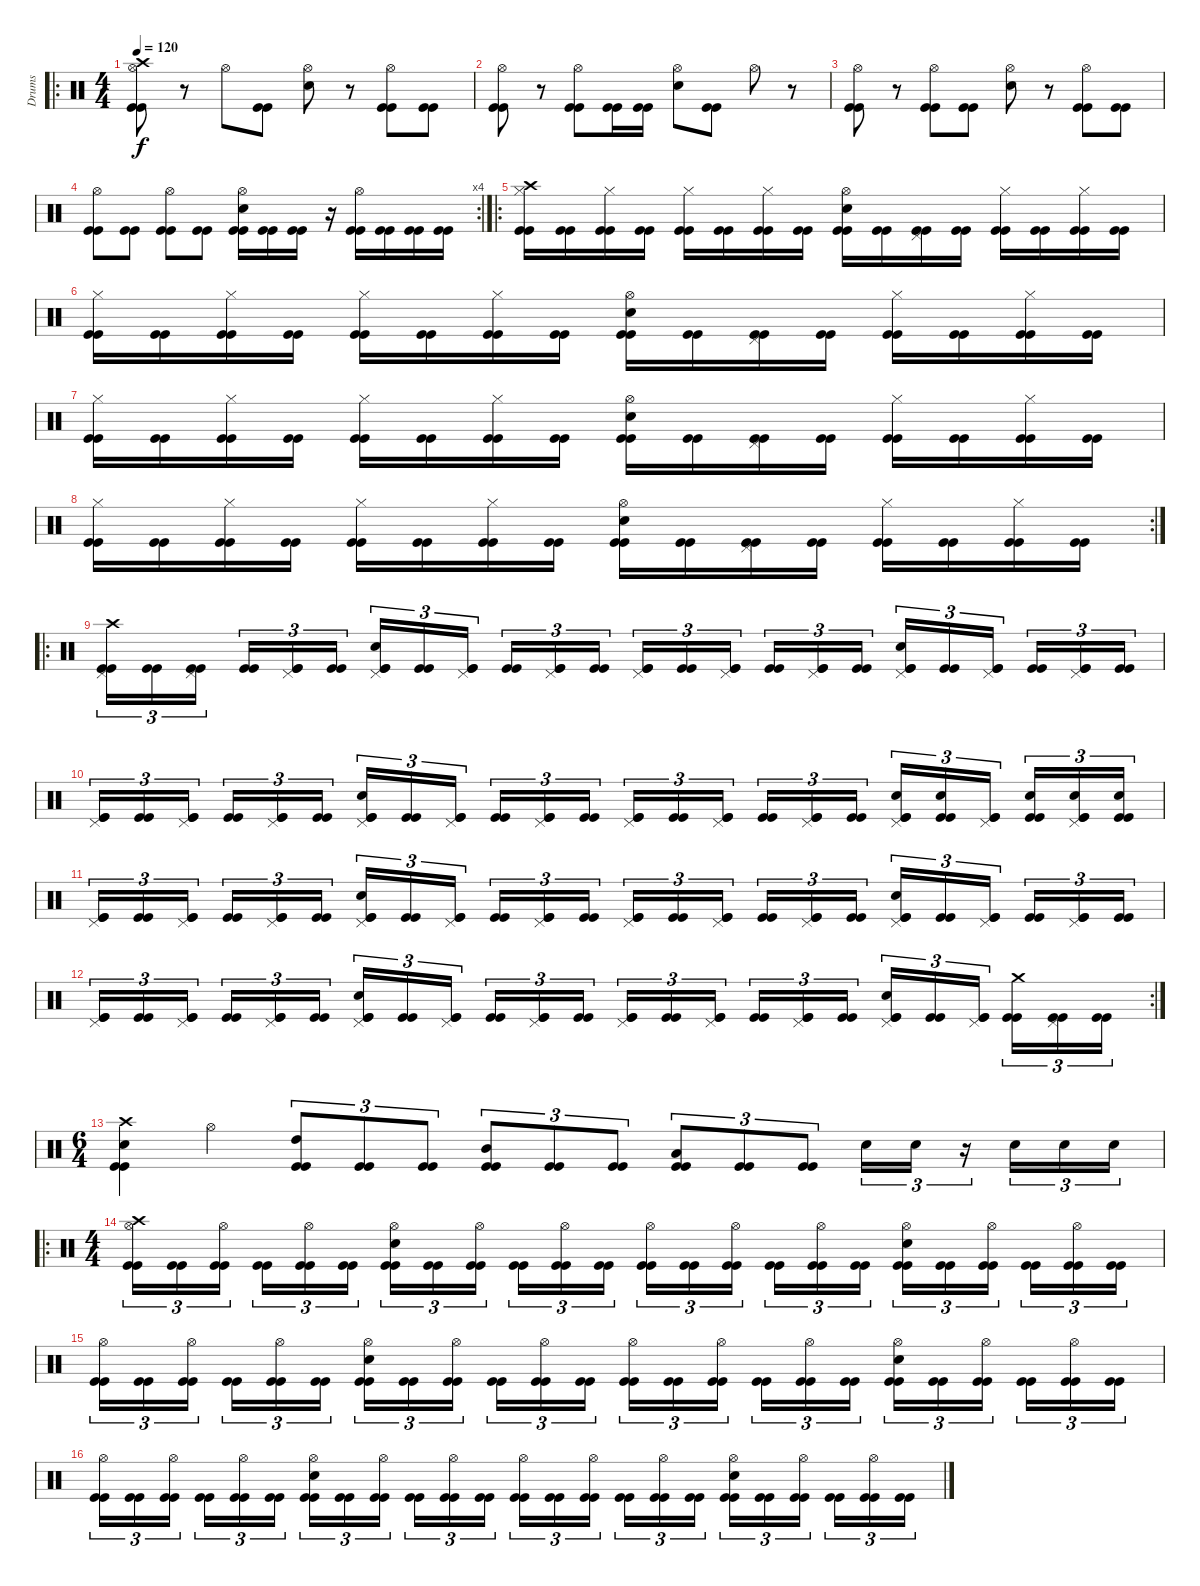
\track ("Drums" "Drums") {instrument percussion}
\staff {score}
\articulation defaults
\ro
\ts (4 4)
\tempo 120
\clef neutral
\ks c
("Crash high (hit)" "Hi-Hat (open)" "Kick (hit)" "Kick (hit)").8{dy f} r.8 "Hi-Hat (open)".8 ("Kick (hit)" "Kick (hit)").8 ("Snare (hit) 2" "Hi-Hat (open)").8 r.8 ("Hi-Hat (open)" "Kick (hit)" "Kick (hit)").8 ("Kick (hit)" "Kick (hit)").8 |
("Hi-Hat (open)" "Kick (hit)" "Kick (hit)").8 r.8 ("Hi-Hat (open)" "Kick (hit)" "Kick (hit)").8 ("Kick (hit)" "Kick (hit)").16 ("Kick (hit)" "Kick (hit)").16 ("Snare (hit) 2" "Hi-Hat (open)").8 ("Kick (hit)" "Kick (hit)").8 "Hi-Hat (open)".8 r.8 |
("Hi-Hat (open)" "Kick (hit)" "Kick (hit)").8 r.8 ("Hi-Hat (open)" "Kick (hit)" "Kick (hit)").8 ("Kick (hit)" "Kick (hit)").8 ("Snare (hit) 2" "Hi-Hat (open)").8 r.8 ("Hi-Hat (open)" "Kick (hit)" "Kick (hit)").8 ("Kick (hit)" "Kick (hit)").8 |
\rc 4
("Hi-Hat (open)" "Kick (hit)" "Kick (hit)").8 ("Kick (hit)" "Kick (hit)").8 ("Hi-Hat (open)" "Kick (hit)" "Kick (hit)").8 ("Kick (hit)" "Kick (hit)").8 ("Snare (hit) 2" "Hi-Hat (open)" "Kick (hit)" "Kick (hit)").16 ("Kick (hit)" "Kick (hit)").16 ("Kick (hit)" "Kick (hit)").16 r.16 ("Hi-Hat (open)" "Kick (hit)" "Kick (hit)").16 ("Kick (hit)" "Kick (hit)").16 ("Kick (hit)" "Kick (hit)").16 ("Kick (hit)" "Kick (hit)").16 |
\ro
("Crash high (hit)" "Hi-Hat (closed)" "Kick (hit)" "Kick (hit)").16 ("Kick (hit)" "Kick (hit)").16 ("Hi-Hat (closed)" "Kick (hit)" "Kick (hit)").16 ("Kick (hit)" "Kick (hit)").16 ("Hi-Hat (closed)" "Kick (hit)" "Kick (hit)").16 ("Kick (hit)" "Kick (hit)").16 ("Hi-Hat (closed)" "Kick (hit)" "Kick (hit)").16 ("Kick (hit)" "Kick (hit)").16 ("Snare (hit) 2" "Hi-Hat (open)" "Kick (hit)" "Kick (hit)").16 ("Kick (hit)" "Kick (hit)").16 ("Pedal Hi-Hat (hit)" "Kick (hit)" "Kick (hit)").16 ("Kick (hit)" "Kick (hit)").16 ("Hi-Hat (closed)" "Kick (hit)" "Kick (hit)").16 ("Kick (hit)" "Kick (hit)").16 ("Hi-Hat (closed)" "Kick (hit)" "Kick (hit)").16 ("Kick (hit)" "Kick (hit)").16 |
("Hi-Hat (closed)" "Kick (hit)" "Kick (hit)").16 ("Kick (hit)" "Kick (hit)").16 ("Hi-Hat (closed)" "Kick (hit)" "Kick (hit)").16 ("Kick (hit)" "Kick (hit)").16 ("Hi-Hat (closed)" "Kick (hit)" "Kick (hit)").16 ("Kick (hit)" "Kick (hit)").16 ("Hi-Hat (closed)" "Kick (hit)" "Kick (hit)").16 ("Kick (hit)" "Kick (hit)").16 ("Snare (hit) 2" "Hi-Hat (open)" "Kick (hit)" "Kick (hit)").16 ("Kick (hit)" "Kick (hit)").16 ("Pedal Hi-Hat (hit)" "Kick (hit)" "Kick (hit)").16 ("Kick (hit)" "Kick (hit)").16 ("Hi-Hat (closed)" "Kick (hit)" "Kick (hit)").16 ("Kick (hit)" "Kick (hit)").16 ("Hi-Hat (closed)" "Kick (hit)" "Kick (hit)").16 ("Kick (hit)" "Kick (hit)").16 |
("Hi-Hat (closed)" "Kick (hit)" "Kick (hit)").16 ("Kick (hit)" "Kick (hit)").16 ("Hi-Hat (closed)" "Kick (hit)" "Kick (hit)").16 ("Kick (hit)" "Kick (hit)").16 ("Hi-Hat (closed)" "Kick (hit)" "Kick (hit)").16 ("Kick (hit)" "Kick (hit)").16 ("Hi-Hat (closed)" "Kick (hit)" "Kick (hit)").16 ("Kick (hit)" "Kick (hit)").16 ("Snare (hit) 2" "Hi-Hat (open)" "Kick (hit)" "Kick (hit)").16 ("Kick (hit)" "Kick (hit)").16 ("Pedal Hi-Hat (hit)" "Kick (hit)" "Kick (hit)").16 ("Kick (hit)" "Kick (hit)").16 ("Hi-Hat (closed)" "Kick (hit)" "Kick (hit)").16 ("Kick (hit)" "Kick (hit)").16 ("Hi-Hat (closed)" "Kick (hit)" "Kick (hit)").16 ("Kick (hit)" "Kick (hit)").16 |
\rc 2
("Hi-Hat (closed)" "Kick (hit)" "Kick (hit)").16 ("Kick (hit)" "Kick (hit)").16 ("Hi-Hat (closed)" "Kick (hit)" "Kick (hit)").16 ("Kick (hit)" "Kick (hit)").16 ("Hi-Hat (closed)" "Kick (hit)" "Kick (hit)").16 ("Kick (hit)" "Kick (hit)").16 ("Hi-Hat (closed)" "Kick (hit)" "Kick (hit)").16 ("Kick (hit)" "Kick (hit)").16 ("Snare (hit) 2" "Hi-Hat (open)" "Kick (hit)" "Kick (hit)").16 ("Kick (hit)" "Kick (hit)").16 ("Pedal Hi-Hat (hit)" "Kick (hit)" "Kick (hit)").16 ("Kick (hit)" "Kick (hit)").16 ("Hi-Hat (closed)" "Kick (hit)" "Kick (hit)").16 ("Kick (hit)" "Kick (hit)").16 ("Hi-Hat (closed)" "Kick (hit)" "Kick (hit)").16 ("Kick (hit)" "Kick (hit)").16 |
\ro
("Crash high (hit)" "Pedal Hi-Hat (hit)" "Kick (hit)" "Kick (hit)").16{tu (3 2)} ("Kick (hit)" "Kick (hit)").16{tu (3 2)} ("Pedal Hi-Hat (hit)" "Kick (hit)" "Kick (hit)").16{tu (3 2)} ("Kick (hit)" "Kick (hit)").16{tu (3 2)} ("Pedal Hi-Hat (hit)" "Kick (hit)" "Kick (hit)").16{tu (3 2)} ("Kick (hit)" "Kick (hit)").16{tu (3 2)} ("Snare (hit) 2" "Pedal Hi-Hat (hit)" "Kick (hit)" "Kick (hit)").16{tu (3 2)} ("Kick (hit)" "Kick (hit)").16{tu (3 2)} ("Pedal Hi-Hat (hit)" "Kick (hit)" "Kick (hit)").16{tu (3 2)} ("Kick (hit)" "Kick (hit)").16{tu (3 2)} ("Pedal Hi-Hat (hit)" "Kick (hit)" "Kick (hit)").16{tu (3 2)} ("Kick (hit)" "Kick (hit)").16{tu (3 2)} ("Pedal Hi-Hat (hit)" "Kick (hit)" "Kick (hit)").16{tu (3 2)} ("Kick (hit)" "Kick (hit)").16{tu (3 2)} ("Pedal Hi-Hat (hit)" "Kick (hit)" "Kick (hit)").16{tu (3 2)} ("Kick (hit)" "Kick (hit)").16{tu (3 2)} ("Pedal Hi-Hat (hit)" "Kick (hit)" "Kick (hit)").16{tu (3 2)} ("Kick (hit)" "Kick (hit)").16{tu (3 2)} ("Snare (hit) 2" "Pedal Hi-Hat (hit)" "Kick (hit)" "Kick (hit)").16{tu (3 2)} ("Kick (hit)" "Kick (hit)").16{tu (3 2)} ("Pedal Hi-Hat (hit)" "Kick (hit)" "Kick (hit)").16{tu (3 2)} ("Kick (hit)" "Kick (hit)").16{tu (3 2)} ("Pedal Hi-Hat (hit)" "Kick (hit)" "Kick (hit)").16{tu (3 2)} ("Kick (hit)" "Kick (hit)").16{tu (3 2)} |
("Pedal Hi-Hat (hit)" "Kick (hit)" "Kick (hit)").16{tu (3 2)} ("Kick (hit)" "Kick (hit)").16{tu (3 2)} ("Pedal Hi-Hat (hit)" "Kick (hit)" "Kick (hit)").16{tu (3 2)} ("Kick (hit)" "Kick (hit)").16{tu (3 2)} ("Pedal Hi-Hat (hit)" "Kick (hit)" "Kick (hit)").16{tu (3 2)} ("Kick (hit)" "Kick (hit)").16{tu (3 2)} ("Snare (hit) 2" "Pedal Hi-Hat (hit)" "Kick (hit)" "Kick (hit)").16{tu (3 2)} ("Kick (hit)" "Kick (hit)").16{tu (3 2)} ("Pedal Hi-Hat (hit)" "Kick (hit)" "Kick (hit)").16{tu (3 2)} ("Kick (hit)" "Kick (hit)").16{tu (3 2)} ("Pedal Hi-Hat (hit)" "Kick (hit)" "Kick (hit)").16{tu (3 2)} ("Kick (hit)" "Kick (hit)").16{tu (3 2)} ("Pedal Hi-Hat (hit)" "Kick (hit)" "Kick (hit)").16{tu (3 2)} ("Kick (hit)" "Kick (hit)").16{tu (3 2)} ("Pedal Hi-Hat (hit)" "Kick (hit)" "Kick (hit)").16{tu (3 2)} ("Kick (hit)" "Kick (hit)").16{tu (3 2)} ("Pedal Hi-Hat (hit)" "Kick (hit)" "Kick (hit)").16{tu (3 2)} ("Kick (hit)" "Kick (hit)").16{tu (3 2)} ("Snare (hit) 2" "Pedal Hi-Hat (hit)" "Kick (hit)" "Kick (hit)").16{tu (3 2)} ("Snare (hit) 2" "Kick (hit)" "Kick (hit)").16{tu (3 2)} ("Pedal Hi-Hat (hit)" "Kick (hit)" "Kick (hit)").16{tu (3 2)} ("Snare (hit) 2" "Kick (hit)" "Kick (hit)").16{tu (3 2)} ("Snare (hit) 2" "Pedal Hi-Hat (hit)" "Kick (hit)" "Kick (hit)").16{tu (3 2)} ("Snare (hit) 2" "Kick (hit)" "Kick (hit)").16{tu (3 2)} |
("Pedal Hi-Hat (hit)" "Kick (hit)" "Kick (hit)").16{tu (3 2)} ("Kick (hit)" "Kick (hit)").16{tu (3 2)} ("Pedal Hi-Hat (hit)" "Kick (hit)" "Kick (hit)").16{tu (3 2)} ("Kick (hit)" "Kick (hit)").16{tu (3 2)} ("Pedal Hi-Hat (hit)" "Kick (hit)" "Kick (hit)").16{tu (3 2)} ("Kick (hit)" "Kick (hit)").16{tu (3 2)} ("Snare (hit) 2" "Pedal Hi-Hat (hit)" "Kick (hit)" "Kick (hit)").16{tu (3 2)} ("Kick (hit)" "Kick (hit)").16{tu (3 2)} ("Pedal Hi-Hat (hit)" "Kick (hit)" "Kick (hit)").16{tu (3 2)} ("Kick (hit)" "Kick (hit)").16{tu (3 2)} ("Pedal Hi-Hat (hit)" "Kick (hit)" "Kick (hit)").16{tu (3 2)} ("Kick (hit)" "Kick (hit)").16{tu (3 2)} ("Pedal Hi-Hat (hit)" "Kick (hit)" "Kick (hit)").16{tu (3 2)} ("Kick (hit)" "Kick (hit)").16{tu (3 2)} ("Pedal Hi-Hat (hit)" "Kick (hit)" "Kick (hit)").16{tu (3 2)} ("Kick (hit)" "Kick (hit)").16{tu (3 2)} ("Pedal Hi-Hat (hit)" "Kick (hit)" "Kick (hit)").16{tu (3 2)} ("Kick (hit)" "Kick (hit)").16{tu (3 2)} ("Snare (hit) 2" "Pedal Hi-Hat (hit)" "Kick (hit)" "Kick (hit)").16{tu (3 2)} ("Kick (hit)" "Kick (hit)").16{tu (3 2)} ("Pedal Hi-Hat (hit)" "Kick (hit)" "Kick (hit)").16{tu (3 2)} ("Kick (hit)" "Kick (hit)").16{tu (3 2)} ("Pedal Hi-Hat (hit)" "Kick (hit)" "Kick (hit)").16{tu (3 2)} ("Kick (hit)" "Kick (hit)").16{tu (3 2)} |
\rc 2
("Pedal Hi-Hat (hit)" "Kick (hit)" "Kick (hit)").16{tu (3 2)} ("Kick (hit)" "Kick (hit)").16{tu (3 2)} ("Pedal Hi-Hat (hit)" "Kick (hit)" "Kick (hit)").16{tu (3 2)} ("Kick (hit)" "Kick (hit)").16{tu (3 2)} ("Pedal Hi-Hat (hit)" "Kick (hit)" "Kick (hit)").16{tu (3 2)} ("Kick (hit)" "Kick (hit)").16{tu (3 2)} ("Snare (hit) 2" "Pedal Hi-Hat (hit)" "Kick (hit)" "Kick (hit)").16{tu (3 2)} ("Kick (hit)" "Kick (hit)").16{tu (3 2)} ("Pedal Hi-Hat (hit)" "Kick (hit)" "Kick (hit)").16{tu (3 2)} ("Kick (hit)" "Kick (hit)").16{tu (3 2)} ("Pedal Hi-Hat (hit)" "Kick (hit)" "Kick (hit)").16{tu (3 2)} ("Kick (hit)" "Kick (hit)").16{tu (3 2)} ("Pedal Hi-Hat (hit)" "Kick (hit)" "Kick (hit)").16{tu (3 2)} ("Kick (hit)" "Kick (hit)").16{tu (3 2)} ("Pedal Hi-Hat (hit)" "Kick (hit)" "Kick (hit)").16{tu (3 2)} ("Kick (hit)" "Kick (hit)").16{tu (3 2)} ("Pedal Hi-Hat (hit)" "Kick (hit)" "Kick (hit)").16{tu (3 2)} ("Kick (hit)" "Kick (hit)").16{tu (3 2)} ("Snare (hit) 2" "Pedal Hi-Hat (hit)" "Kick (hit)" "Kick (hit)").16{tu (3 2)} ("Kick (hit)" "Kick (hit)").16{tu (3 2)} ("Pedal Hi-Hat (hit)" "Kick (hit)" "Kick (hit)").16{tu (3 2)} ("Crash medium (hit)" "Kick (hit)" "Kick (hit)").16{tu (3 2)} ("Pedal Hi-Hat (hit)" "Kick (hit)" "Kick (hit)").16{tu (3 2)} ("Kick (hit)" "Kick (hit)").16{tu (3 2)} |
\ts (6 4)
("Crash high (hit)" "Snare (hit) 2" "Kick (hit)" "Kick (hit)").4 "Hi-Hat (open)".4 ("High Tom (hit)" "Kick (hit)" "Kick (hit)").8{tu (3 2) bd 120} ("Kick (hit)" "Kick (hit)").8{tu (3 2) bd 120} ("Kick (hit)" "Kick (hit)").8{tu (3 2) bd 120} ("Mid Tom (hit)" "Kick (hit)" "Kick (hit)").8{tu (3 2) bd 120} ("Kick (hit)" "Kick (hit)").8{tu (3 2) bd 120} ("Kick (hit)" "Kick (hit)").8{tu (3 2) bd 120} ("Low Tom (hit)" "Kick (hit)" "Kick (hit)").8{tu (3 2) bd 120} ("Kick (hit)" "Kick (hit)").8{tu (3 2) bd 120} ("Kick (hit)" "Kick (hit)").8{tu (3 2) bd 120} "Snare (hit) 2".16{tu (3 2)} "Snare (hit) 2".16{tu (3 2)} r.16{tu (3 2)} "Snare (hit) 2".16{tu (3 2)} "Snare (hit) 2".16{tu (3 2)} "Snare (hit) 2".16{tu (3 2)} |
\ro
\ts (4 4)
("Crash high (hit)" "Hi-Hat (open)" "Kick (hit)" "Kick (hit)").16{tu (3 2)} ("Kick (hit)" "Kick (hit)").16{tu (3 2)} ("Hi-Hat (open)" "Kick (hit)" "Kick (hit)").16{tu (3 2)} ("Kick (hit)" "Kick (hit)").16{tu (3 2)} ("Hi-Hat (open)" "Kick (hit)" "Kick (hit)").16{tu (3 2)} ("Kick (hit)" "Kick (hit)").16{tu (3 2)} ("Snare (hit) 2" "Hi-Hat (open)" "Kick (hit)" "Kick (hit)").16{tu (3 2)} ("Kick (hit)" "Kick (hit)").16{tu (3 2)} ("Hi-Hat (open)" "Kick (hit)" "Kick (hit)").16{tu (3 2)} ("Kick (hit)" "Kick (hit)").16{tu (3 2)} ("Hi-Hat (open)" "Kick (hit)" "Kick (hit)").16{tu (3 2)} ("Kick (hit)" "Kick (hit)").16{tu (3 2)} ("Hi-Hat (open)" "Kick (hit)" "Kick (hit)").16{tu (3 2)} ("Kick (hit)" "Kick (hit)").16{tu (3 2)} ("Hi-Hat (open)" "Kick (hit)" "Kick (hit)").16{tu (3 2)} ("Kick (hit)" "Kick (hit)").16{tu (3 2)} ("Hi-Hat (open)" "Kick (hit)" "Kick (hit)").16{tu (3 2)} ("Kick (hit)" "Kick (hit)").16{tu (3 2)} ("Snare (hit) 2" "Hi-Hat (open)" "Kick (hit)" "Kick (hit)").16{tu (3 2)} ("Kick (hit)" "Kick (hit)").16{tu (3 2)} ("Hi-Hat (open)" "Kick (hit)" "Kick (hit)").16{tu (3 2)} ("Kick (hit)" "Kick (hit)").16{tu (3 2)} ("Hi-Hat (open)" "Kick (hit)" "Kick (hit)").16{tu (3 2)} ("Kick (hit)" "Kick (hit)").16{tu (3 2)} |
("Hi-Hat (open)" "Kick (hit)" "Kick (hit)").16{tu (3 2)} ("Kick (hit)" "Kick (hit)").16{tu (3 2)} ("Hi-Hat (open)" "Kick (hit)" "Kick (hit)").16{tu (3 2)} ("Kick (hit)" "Kick (hit)").16{tu (3 2)} ("Hi-Hat (open)" "Kick (hit)" "Kick (hit)").16{tu (3 2)} ("Kick (hit)" "Kick (hit)").16{tu (3 2)} ("Snare (hit) 2" "Hi-Hat (open)" "Kick (hit)" "Kick (hit)").16{tu (3 2)} ("Kick (hit)" "Kick (hit)").16{tu (3 2)} ("Hi-Hat (open)" "Kick (hit)" "Kick (hit)").16{tu (3 2)} ("Kick (hit)" "Kick (hit)").16{tu (3 2)} ("Hi-Hat (open)" "Kick (hit)" "Kick (hit)").16{tu (3 2)} ("Kick (hit)" "Kick (hit)").16{tu (3 2)} ("Hi-Hat (open)" "Kick (hit)" "Kick (hit)").16{tu (3 2)} ("Kick (hit)" "Kick (hit)").16{tu (3 2)} ("Hi-Hat (open)" "Kick (hit)" "Kick (hit)").16{tu (3 2)} ("Kick (hit)" "Kick (hit)").16{tu (3 2)} ("Hi-Hat (open)" "Kick (hit)" "Kick (hit)").16{tu (3 2)} ("Kick (hit)" "Kick (hit)").16{tu (3 2)} ("Snare (hit) 2" "Hi-Hat (open)" "Kick (hit)" "Kick (hit)").16{tu (3 2)} ("Kick (hit)" "Kick (hit)").16{tu (3 2)} ("Hi-Hat (open)" "Kick (hit)" "Kick (hit)").16{tu (3 2)} ("Kick (hit)" "Kick (hit)").16{tu (3 2)} ("Hi-Hat (open)" "Kick (hit)" "Kick (hit)").16{tu (3 2)} ("Kick (hit)" "Kick (hit)").16{tu (3 2)} |
("Hi-Hat (open)" "Kick (hit)" "Kick (hit)").16{tu (3 2)} ("Kick (hit)" "Kick (hit)").16{tu (3 2)} ("Hi-Hat (open)" "Kick (hit)" "Kick (hit)").16{tu (3 2)} ("Kick (hit)" "Kick (hit)").16{tu (3 2)} ("Hi-Hat (open)" "Kick (hit)" "Kick (hit)").16{tu (3 2)} ("Kick (hit)" "Kick (hit)").16{tu (3 2)} ("Snare (hit) 2" "Hi-Hat (open)" "Kick (hit)" "Kick (hit)").16{tu (3 2)} ("Kick (hit)" "Kick (hit)").16{tu (3 2)} ("Hi-Hat (open)" "Kick (hit)" "Kick (hit)").16{tu (3 2)} ("Kick (hit)" "Kick (hit)").16{tu (3 2)} ("Hi-Hat (open)" "Kick (hit)" "Kick (hit)").16{tu (3 2)} ("Kick (hit)" "Kick (hit)").16{tu (3 2)} ("Hi-Hat (open)" "Kick (hit)" "Kick (hit)").16{tu (3 2)} ("Kick (hit)" "Kick (hit)").16{tu (3 2)} ("Hi-Hat (open)" "Kick (hit)" "Kick (hit)").16{tu (3 2)} ("Kick (hit)" "Kick (hit)").16{tu (3 2)} ("Hi-Hat (open)" "Kick (hit)" "Kick (hit)").16{tu (3 2)} ("Kick (hit)" "Kick (hit)").16{tu (3 2)} ("Snare (hit) 2" "Hi-Hat (open)" "Kick (hit)" "Kick (hit)").16{tu (3 2)} ("Kick (hit)" "Kick (hit)").16{tu (3 2)} ("Hi-Hat (open)" "Kick (hit)" "Kick (hit)").16{tu (3 2)} ("Kick (hit)" "Kick (hit)").16{tu (3 2)} ("Hi-Hat (open)" "Kick (hit)" "Kick (hit)").16{tu (3 2)} ("Kick (hit)" "Kick (hit)").16{tu (3 2)}
